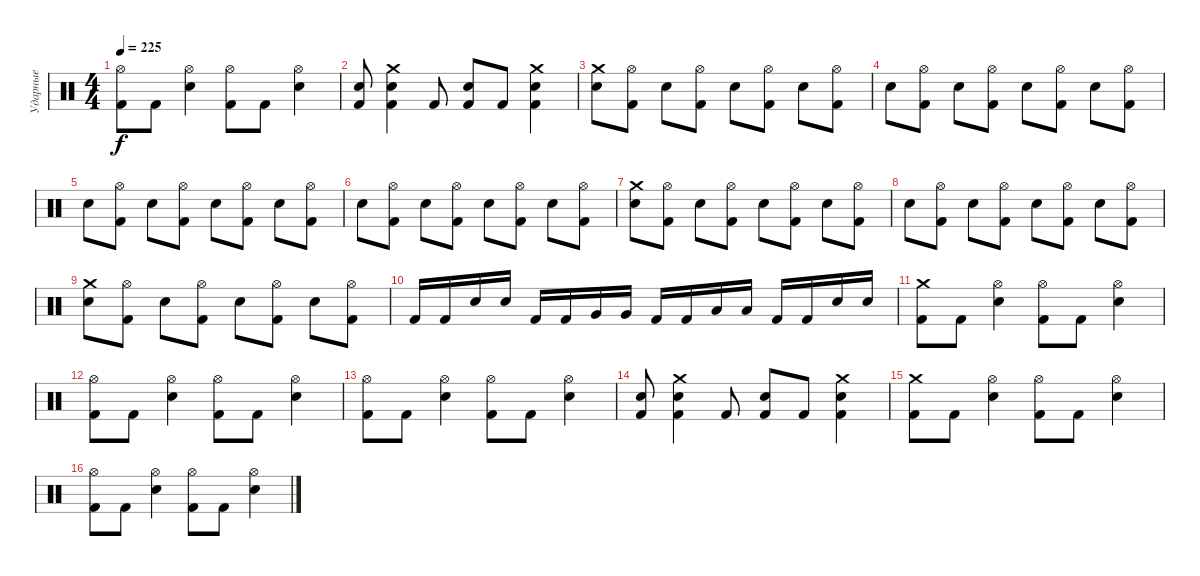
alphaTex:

\track ("Ударные" "Ударные") {instrument percussion}
\staff {score}
\articulation defaults
\ts (4 4)
\tempo 225
\clef neutral
\ks c
("Hi-Hat (open)" "Kick (hit) 2").8{dy f} "Kick (hit) 2".8 ("Hi-Hat (open)" "Snare (hit) 2").4 ("Hi-Hat (open)" "Kick (hit) 2").8 "Kick (hit) 2".8 ("Hi-Hat (open)" "Snare (hit) 2").4 |
("Snare (hit) 2" "Kick (hit) 2").8 ("Crash medium (hit)" "Snare (hit) 2" "Kick (hit) 2").4 "Kick (hit) 2".8 ("Snare (hit) 2" "Kick (hit) 2").8 "Kick (hit) 2".8 ("Crash medium (hit)" "Snare (hit) 2" "Kick (hit) 2").4 |
("Crash medium (hit)" "Snare (hit) 2").8 ("Hi-Hat (open)" "Kick (hit) 2").8 "Snare (hit) 2".8 ("Hi-Hat (open)" "Kick (hit) 2").8 "Snare (hit) 2".8 ("Hi-Hat (open)" "Kick (hit) 2").8 "Snare (hit) 2".8 ("Hi-Hat (open)" "Kick (hit) 2").8 |
"Snare (hit) 2".8 ("Hi-Hat (open)" "Kick (hit) 2").8 "Snare (hit) 2".8 ("Hi-Hat (open)" "Kick (hit) 2").8 "Snare (hit) 2".8 ("Hi-Hat (open)" "Kick (hit) 2").8 "Snare (hit) 2".8 ("Hi-Hat (open)" "Kick (hit) 2").8 |
"Snare (hit) 2".8 ("Hi-Hat (open)" "Kick (hit) 2").8 "Snare (hit) 2".8 ("Hi-Hat (open)" "Kick (hit) 2").8 "Snare (hit) 2".8 ("Hi-Hat (open)" "Kick (hit) 2").8 "Snare (hit) 2".8 ("Hi-Hat (open)" "Kick (hit) 2").8 |
"Snare (hit) 2".8 ("Hi-Hat (open)" "Kick (hit) 2").8 "Snare (hit) 2".8 ("Hi-Hat (open)" "Kick (hit) 2").8 "Snare (hit) 2".8 ("Hi-Hat (open)" "Kick (hit) 2").8 "Snare (hit) 2".8 ("Hi-Hat (open)" "Kick (hit) 2").8 |
("Crash medium (hit)" "Snare (hit) 2").8 ("Hi-Hat (open)" "Kick (hit) 2").8 "Snare (hit) 2".8 ("Hi-Hat (open)" "Kick (hit) 2").8 "Snare (hit) 2".8 ("Hi-Hat (open)" "Kick (hit) 2").8 "Snare (hit) 2".8 ("Hi-Hat (open)" "Kick (hit) 2").8 |
"Snare (hit) 2".8 ("Hi-Hat (open)" "Kick (hit) 2").8 "Snare (hit) 2".8 ("Hi-Hat (open)" "Kick (hit) 2").8 "Snare (hit) 2".8 ("Hi-Hat (open)" "Kick (hit) 2").8 "Snare (hit) 2".8 ("Hi-Hat (open)" "Kick (hit) 2").8 |
("Crash medium (hit)" "Snare (hit) 2").8 ("Hi-Hat (open)" "Kick (hit) 2").8 "Snare (hit) 2".8 ("Hi-Hat (open)" "Kick (hit) 2").8 "Snare (hit) 2".8 ("Hi-Hat (open)" "Kick (hit) 2").8 "Snare (hit) 2".8 ("Hi-Hat (open)" "Kick (hit) 2").8 |
"Kick (hit) 2".16 "Kick (hit) 2".16 "Snare (hit) 2".16 "Snare (hit) 2".16 "Kick (hit) 2".16 "Kick (hit) 2".16 "Very Low Tom (hit)".16 "Very Low Tom (hit)".16 "Kick (hit) 2".16 "Kick (hit) 2".16 "Low Tom (hit)".16 "Low Tom (hit)".16 "Kick (hit) 2".16 "Kick (hit) 2".16 "Snare (hit) 2".16 "Snare (hit) 2".16 |
("Crash medium (hit)" "Kick (hit) 2").8 "Kick (hit) 2".8 ("Hi-Hat (open)" "Snare (hit) 2").4 ("Hi-Hat (open)" "Kick (hit) 2").8 "Kick (hit) 2".8 ("Hi-Hat (open)" "Snare (hit) 2").4 |
("Hi-Hat (open)" "Kick (hit) 2").8 "Kick (hit) 2".8 ("Hi-Hat (open)" "Snare (hit) 2").4 ("Hi-Hat (open)" "Kick (hit) 2").8 "Kick (hit) 2".8 ("Hi-Hat (open)" "Snare (hit) 2").4 |
("Hi-Hat (open)" "Kick (hit) 2").8 "Kick (hit) 2".8 ("Hi-Hat (open)" "Snare (hit) 2").4 ("Hi-Hat (open)" "Kick (hit) 2").8 "Kick (hit) 2".8 ("Hi-Hat (open)" "Snare (hit) 2").4 |
("Snare (hit) 2" "Kick (hit) 2").8 ("Crash medium (hit)" "Snare (hit) 2" "Kick (hit) 2").4 "Kick (hit) 2".8 ("Snare (hit) 2" "Kick (hit) 2").8 "Kick (hit) 2".8 ("Crash medium (hit)" "Snare (hit) 2" "Kick (hit) 2").4 |
("Crash medium (hit)" "Kick (hit) 2").8 "Kick (hit) 2".8 ("Hi-Hat (open)" "Snare (hit) 2").4 ("Hi-Hat (open)" "Kick (hit) 2").8 "Kick (hit) 2".8 ("Hi-Hat (open)" "Snare (hit) 2").4 |
("Hi-Hat (open)" "Kick (hit) 2").8 "Kick (hit) 2".8 ("Hi-Hat (open)" "Snare (hit) 2").4 ("Hi-Hat (open)" "Kick (hit) 2").8 "Kick (hit) 2".8 ("Hi-Hat (open)" "Snare (hit) 2").4
